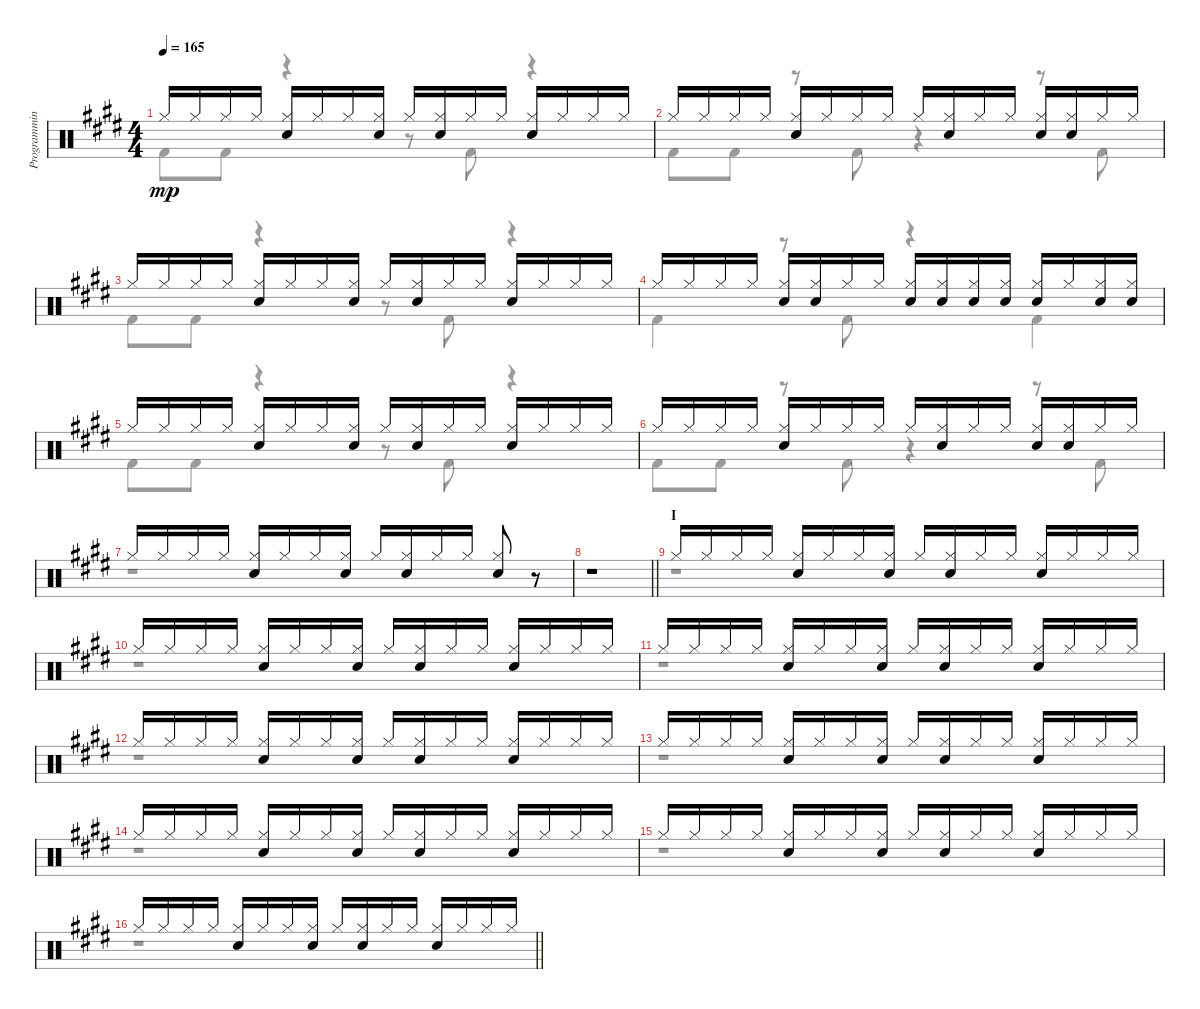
\track ("Programming I" "Programmin") {instrument percussion}
\staff {score}
\articulation defaults
\voice
\ts (4 4)
\tempo 165
\clef neutral
\ks e "Hi-Hat (closed)".16{dy mp} "Hi-Hat (closed)".16 "Hi-Hat (closed)".16 "Hi-Hat (closed)".16
("Hi-Hat (closed)" "Electric Snare (hit)").16 "Hi-Hat (closed)".16 "Hi-Hat (closed)".16 ("Hi-Hat (closed)" "Electric Snare (hit)").16 "Hi-Hat (closed)".16 ("Hi-Hat (closed)" "Electric Snare (hit)").16 "Hi-Hat (closed)".16 "Hi-Hat (closed)".16 ("Hi-Hat (closed)" "Electric Snare (hit)").16 "Hi-Hat (closed)".16 "Hi-Hat (closed)".16 "Hi-Hat (closed)".16 |
"Hi-Hat (closed)".16 "Hi-Hat (closed)".16 "Hi-Hat (closed)".16 "Hi-Hat (closed)".16 ("Hi-Hat (closed)" "Electric Snare (hit)").16 "Hi-Hat (closed)".16 "Hi-Hat (closed)".16 "Hi-Hat (closed)".16 "Hi-Hat (closed)".16 ("Hi-Hat (closed)" "Electric Snare (hit)").16 "Hi-Hat (closed)".16 "Hi-Hat (closed)".16 ("Hi-Hat (closed)" "Electric Snare (hit)").16 ("Hi-Hat (closed)" "Electric Snare (hit)").16 "Hi-Hat (closed)".16 "Hi-Hat (closed)".16 |
"Hi-Hat (closed)".16 "Hi-Hat (closed)".16 "Hi-Hat (closed)".16 "Hi-Hat (closed)".16 ("Hi-Hat (closed)" "Electric Snare (hit)").16 "Hi-Hat (closed)".16 "Hi-Hat (closed)".16 ("Hi-Hat (closed)" "Electric Snare (hit)").16 "Hi-Hat (closed)".16 ("Hi-Hat (closed)" "Electric Snare (hit)").16 "Hi-Hat (closed)".16 "Hi-Hat (closed)".16 ("Hi-Hat (closed)" "Electric Snare (hit)").16 "Hi-Hat (closed)".16 "Hi-Hat (closed)".16 "Hi-Hat (closed)".16 |
"Hi-Hat (closed)".16 "Hi-Hat (closed)".16 "Hi-Hat (closed)".16 "Hi-Hat (closed)".16 ("Hi-Hat (closed)" "Electric Snare (hit)").16 ("Hi-Hat (closed)" "Electric Snare (hit)").16 "Hi-Hat (closed)".16 "Hi-Hat (closed)".16 ("Hi-Hat (closed)" "Electric Snare (hit)").16 ("Hi-Hat (closed)" "Electric Snare (hit)").16 ("Hi-Hat (closed)" "Electric Snare (hit)").16 ("Hi-Hat (closed)" "Electric Snare (hit)").16 ("Hi-Hat (closed)" "Electric Snare (hit)").16 "Hi-Hat (closed)".16 ("Hi-Hat (closed)" "Electric Snare (hit)").16 ("Hi-Hat (closed)" "Electric Snare (hit)").16 |
"Hi-Hat (closed)".16 "Hi-Hat (closed)".16 "Hi-Hat (closed)".16 "Hi-Hat (closed)".16 ("Hi-Hat (closed)" "Electric Snare (hit)").16 "Hi-Hat (closed)".16 "Hi-Hat (closed)".16 ("Hi-Hat (closed)" "Electric Snare (hit)").16 "Hi-Hat (closed)".16 ("Hi-Hat (closed)" "Electric Snare (hit)").16 "Hi-Hat (closed)".16 "Hi-Hat (closed)".16 ("Hi-Hat (closed)" "Electric Snare (hit)").16 "Hi-Hat (closed)".16 "Hi-Hat (closed)".16 "Hi-Hat (closed)".16 |
"Hi-Hat (closed)".16 "Hi-Hat (closed)".16 "Hi-Hat (closed)".16 "Hi-Hat (closed)".16 ("Hi-Hat (closed)" "Electric Snare (hit)").16 "Hi-Hat (closed)".16 "Hi-Hat (closed)".16 "Hi-Hat (closed)".16 "Hi-Hat (closed)".16 ("Hi-Hat (closed)" "Electric Snare (hit)").16 "Hi-Hat (closed)".16 "Hi-Hat (closed)".16 ("Hi-Hat (closed)" "Electric Snare (hit)").16 ("Hi-Hat (closed)" "Electric Snare (hit)").16 "Hi-Hat (closed)".16 "Hi-Hat (closed)".16 |
"Hi-Hat (closed)".16 "Hi-Hat (closed)".16 "Hi-Hat (closed)".16 "Hi-Hat (closed)".16 ("Hi-Hat (closed)" "Electric Snare (hit)").16 "Hi-Hat (closed)".16 "Hi-Hat (closed)".16 ("Hi-Hat (closed)" "Electric Snare (hit)").16 "Hi-Hat (closed)".16 ("Hi-Hat (closed)" "Electric Snare (hit)").16 "Hi-Hat (closed)".16 "Hi-Hat (closed)".16 ("Hi-Hat (closed)" "Electric Snare (hit)").8 r.8 |
\barLineRight lightlight
r.1 |
\section ("" "I")
"Hi-Hat (closed)".16 "Hi-Hat (closed)".16 "Hi-Hat (closed)".16 "Hi-Hat (closed)".16 ("Hi-Hat (closed)" "Electric Snare (hit)").16 "Hi-Hat (closed)".16 "Hi-Hat (closed)".16 ("Hi-Hat (closed)" "Electric Snare (hit)").16 "Hi-Hat (closed)".16 ("Hi-Hat (closed)" "Electric Snare (hit)").16 "Hi-Hat (closed)".16 "Hi-Hat (closed)".16 ("Hi-Hat (closed)" "Electric Snare (hit)").16 "Hi-Hat (closed)".16 "Hi-Hat (closed)".16 "Hi-Hat (closed)".16 |
"Hi-Hat (closed)".16 "Hi-Hat (closed)".16 "Hi-Hat (closed)".16 "Hi-Hat (closed)".16 ("Hi-Hat (closed)" "Electric Snare (hit)").16 "Hi-Hat (closed)".16 "Hi-Hat (closed)".16 ("Hi-Hat (closed)" "Electric Snare (hit)").16 "Hi-Hat (closed)".16 ("Hi-Hat (closed)" "Electric Snare (hit)").16 "Hi-Hat (closed)".16 "Hi-Hat (closed)".16 ("Hi-Hat (closed)" "Electric Snare (hit)").16 "Hi-Hat (closed)".16 "Hi-Hat (closed)".16 "Hi-Hat (closed)".16 |
"Hi-Hat (closed)".16 "Hi-Hat (closed)".16 "Hi-Hat (closed)".16 "Hi-Hat (closed)".16 ("Hi-Hat (closed)" "Electric Snare (hit)").16 "Hi-Hat (closed)".16 "Hi-Hat (closed)".16 ("Hi-Hat (closed)" "Electric Snare (hit)").16 "Hi-Hat (closed)".16 ("Hi-Hat (closed)" "Electric Snare (hit)").16 "Hi-Hat (closed)".16 "Hi-Hat (closed)".16 ("Hi-Hat (closed)" "Electric Snare (hit)").16 "Hi-Hat (closed)".16 "Hi-Hat (closed)".16 "Hi-Hat (closed)".16 |
"Hi-Hat (closed)".16 "Hi-Hat (closed)".16 "Hi-Hat (closed)".16 "Hi-Hat (closed)".16 ("Hi-Hat (closed)" "Electric Snare (hit)").16 "Hi-Hat (closed)".16 "Hi-Hat (closed)".16 ("Hi-Hat (closed)" "Electric Snare (hit)").16 "Hi-Hat (closed)".16 ("Hi-Hat (closed)" "Electric Snare (hit)").16 "Hi-Hat (closed)".16 "Hi-Hat (closed)".16 ("Hi-Hat (closed)" "Electric Snare (hit)").16 "Hi-Hat (closed)".16 "Hi-Hat (closed)".16 "Hi-Hat (closed)".16 |
"Hi-Hat (closed)".16 "Hi-Hat (closed)".16 "Hi-Hat (closed)".16 "Hi-Hat (closed)".16 ("Hi-Hat (closed)" "Electric Snare (hit)").16 "Hi-Hat (closed)".16 "Hi-Hat (closed)".16 ("Hi-Hat (closed)" "Electric Snare (hit)").16 "Hi-Hat (closed)".16 ("Hi-Hat (closed)" "Electric Snare (hit)").16 "Hi-Hat (closed)".16 "Hi-Hat (closed)".16 ("Hi-Hat (closed)" "Electric Snare (hit)").16 "Hi-Hat (closed)".16 "Hi-Hat (closed)".16 "Hi-Hat (closed)".16 |
"Hi-Hat (closed)".16 "Hi-Hat (closed)".16 "Hi-Hat (closed)".16 "Hi-Hat (closed)".16 ("Hi-Hat (closed)" "Electric Snare (hit)").16 "Hi-Hat (closed)".16 "Hi-Hat (closed)".16 ("Hi-Hat (closed)" "Electric Snare (hit)").16 "Hi-Hat (closed)".16 ("Hi-Hat (closed)" "Electric Snare (hit)").16 "Hi-Hat (closed)".16 "Hi-Hat (closed)".16 ("Hi-Hat (closed)" "Electric Snare (hit)").16 "Hi-Hat (closed)".16 "Hi-Hat (closed)".16 "Hi-Hat (closed)".16 |
"Hi-Hat (closed)".16 "Hi-Hat (closed)".16 "Hi-Hat (closed)".16 "Hi-Hat (closed)".16 ("Hi-Hat (closed)" "Electric Snare (hit)").16 "Hi-Hat (closed)".16 "Hi-Hat (closed)".16 ("Hi-Hat (closed)" "Electric Snare (hit)").16 "Hi-Hat (closed)".16 ("Hi-Hat (closed)" "Electric Snare (hit)").16 "Hi-Hat (closed)".16 "Hi-Hat (closed)".16 ("Hi-Hat (closed)" "Electric Snare (hit)").16 "Hi-Hat (closed)".16 "Hi-Hat (closed)".16 "Hi-Hat (closed)".16 |
\barLineRight lightlight "Hi-Hat (closed)".16 "Hi-Hat (closed)".16 "Hi-Hat (closed)".16 "Hi-Hat (closed)".16
("Hi-Hat (closed)" "Electric Snare (hit)").16 "Hi-Hat (closed)".16 "Hi-Hat (closed)".16 ("Hi-Hat (closed)" "Electric Snare (hit)").16 "Hi-Hat (closed)".16 ("Hi-Hat (closed)" "Electric Snare (hit)").16 "Hi-Hat (closed)".16 "Hi-Hat (closed)".16 ("Hi-Hat (closed)" "Electric Snare (hit)").16 "Hi-Hat (closed)".16 "Hi-Hat (closed)".16 "Hi-Hat (closed)".16
\voice
\clef neutral
\ottava regular
\simile none
\ks e "Kick (hit) 2".8{dy mp} "Kick (hit) 2".8
r.4 r.8 "Kick (hit) 2".8 r.4 |
"Kick (hit) 2".8 "Kick (hit) 2".8 r.8 "Kick (hit) 2".8 r.4 r.8 "Kick (hit) 2".8 |
"Kick (hit) 2".8 "Kick (hit) 2".8 r.4 r.8 "Kick (hit) 2".8 r.4 |
"Kick (hit) 2".4 r.8 "Kick (hit) 2".8 r.4 "Kick (hit) 2".4 |
"Kick (hit) 2".8 "Kick (hit) 2".8 r.4 r.8 "Kick (hit) 2".8 r.4 |
"Kick (hit) 2".8 "Kick (hit) 2".8 r.8 "Kick (hit) 2".8 r.4 r.8 "Kick (hit) 2".8 |
r.1 |
\barLineRight lightlight
r.1 |
r.1 |
r.1 |
r.1 |
r.1 |
r.1 |
r.1 |
r.1 |
\barLineRight lightlight
r.1
